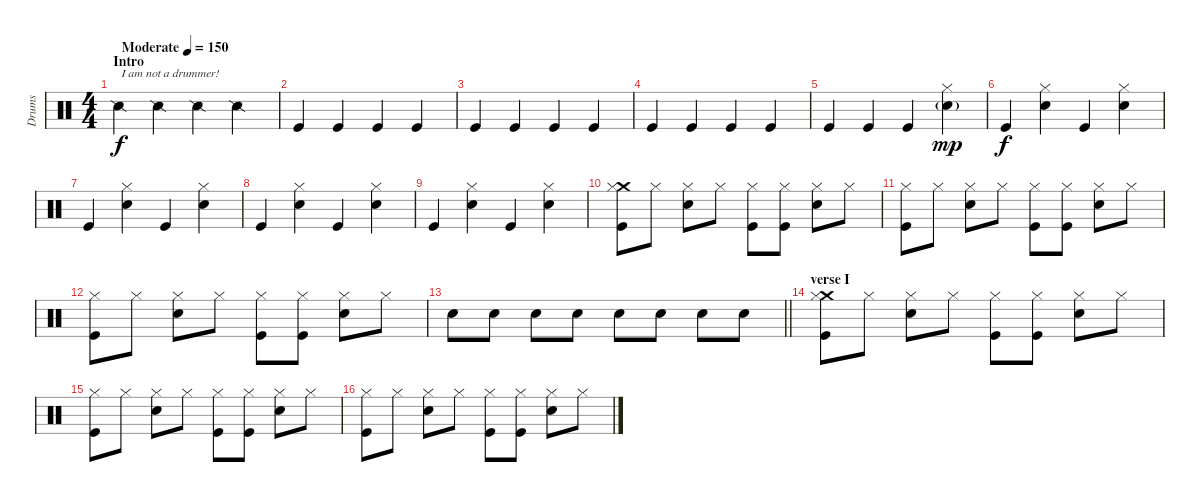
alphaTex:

\track ("Drums" "Drums") {instrument percussion}
\staff {score}
\articulation defaults
\ts (4 4)
\section ("" "Intro")
\tempo (150 "Moderate")
\clef neutral
\ks c "Snare (side stick) 2".4{txt "I am not a drummer!" dy f} "Snare (side stick) 2".4 "Snare (side stick) 2".4 "Snare (side stick) 2".4
|
"Kick (hit)".4 "Kick (hit)".4 "Kick (hit)".4 "Kick (hit)".4 |
"Kick (hit)".4 "Kick (hit)".4 "Kick (hit)".4 "Kick (hit)".4 |
"Kick (hit)".4 "Kick (hit)".4 "Kick (hit)".4 "Kick (hit)".4 |
"Kick (hit)".4 "Kick (hit)".4 "Kick (hit)".4 ("Hi-Hat (closed)" "Electric Snare (hit)"{g}).4{dy mp} |
"Kick (hit)".4{dy f} ("Hi-Hat (closed)" "Electric Snare (hit)").4 "Kick (hit)".4 ("Hi-Hat (closed)" "Electric Snare (hit)").4 |
"Kick (hit)".4 ("Hi-Hat (closed)" "Electric Snare (hit)").4 "Kick (hit)".4 ("Hi-Hat (closed)" "Electric Snare (hit)").4 |
"Kick (hit)".4 ("Hi-Hat (closed)" "Electric Snare (hit)").4 "Kick (hit)".4 ("Hi-Hat (closed)" "Electric Snare (hit)").4 |
"Kick (hit)".4 ("Hi-Hat (closed)" "Electric Snare (hit)").4 "Kick (hit)".4 ("Hi-Hat (closed)" "Electric Snare (hit)").4 |
("Crash medium (hit)" "Hi-Hat (closed)" "Kick (hit)").8 "Hi-Hat (closed)".8 ("Hi-Hat (closed)" "Electric Snare (hit)").8 "Hi-Hat (closed)".8 ("Hi-Hat (closed)" "Kick (hit)").8 ("Hi-Hat (closed)" "Kick (hit)").8 ("Hi-Hat (closed)" "Electric Snare (hit)").8 "Hi-Hat (closed)".8 |
("Hi-Hat (closed)" "Kick (hit)").8 "Hi-Hat (closed)".8 ("Hi-Hat (closed)" "Electric Snare (hit)").8 "Hi-Hat (closed)".8 ("Hi-Hat (closed)" "Kick (hit)").8 ("Hi-Hat (closed)" "Kick (hit)").8 ("Hi-Hat (closed)" "Electric Snare (hit)").8 "Hi-Hat (closed)".8 |
("Hi-Hat (closed)" "Kick (hit)").8 "Hi-Hat (closed)".8 ("Hi-Hat (closed)" "Electric Snare (hit)").8 "Hi-Hat (closed)".8 ("Hi-Hat (closed)" "Kick (hit)").8 ("Hi-Hat (closed)" "Kick (hit)").8 ("Hi-Hat (closed)" "Electric Snare (hit)").8 "Hi-Hat (closed)".8 |
\barLineRight lightlight "Snare (hit)".8 "Snare (hit)".8 "Snare (hit)".8 "Snare (hit)".8 "Snare (hit)".8 "Snare (hit)".8 "Electric Snare (hit)".8 "Snare (hit)".8
|
\section ("" "verse I")
("Crash medium (hit)" "Hi-Hat (closed)" "Kick (hit)").8 "Hi-Hat (closed)".8 ("Hi-Hat (closed)" "Electric Snare (hit)").8 "Hi-Hat (closed)".8 ("Hi-Hat (closed)" "Kick (hit)").8 ("Hi-Hat (closed)" "Kick (hit)").8 ("Hi-Hat (closed)" "Electric Snare (hit)").8 "Hi-Hat (closed)".8 |
("Hi-Hat (closed)" "Kick (hit)").8 "Hi-Hat (closed)".8 ("Hi-Hat (closed)" "Electric Snare (hit)").8 "Hi-Hat (closed)".8 ("Hi-Hat (closed)" "Kick (hit)").8 ("Hi-Hat (closed)" "Kick (hit)").8 ("Hi-Hat (closed)" "Electric Snare (hit)").8 "Hi-Hat (closed)".8 |
("Hi-Hat (closed)" "Kick (hit)").8 "Hi-Hat (closed)".8 ("Hi-Hat (closed)" "Electric Snare (hit)").8 "Hi-Hat (closed)".8 ("Hi-Hat (closed)" "Kick (hit)").8 ("Hi-Hat (closed)" "Kick (hit)").8 ("Hi-Hat (closed)" "Electric Snare (hit)").8 "Hi-Hat (closed)".8
